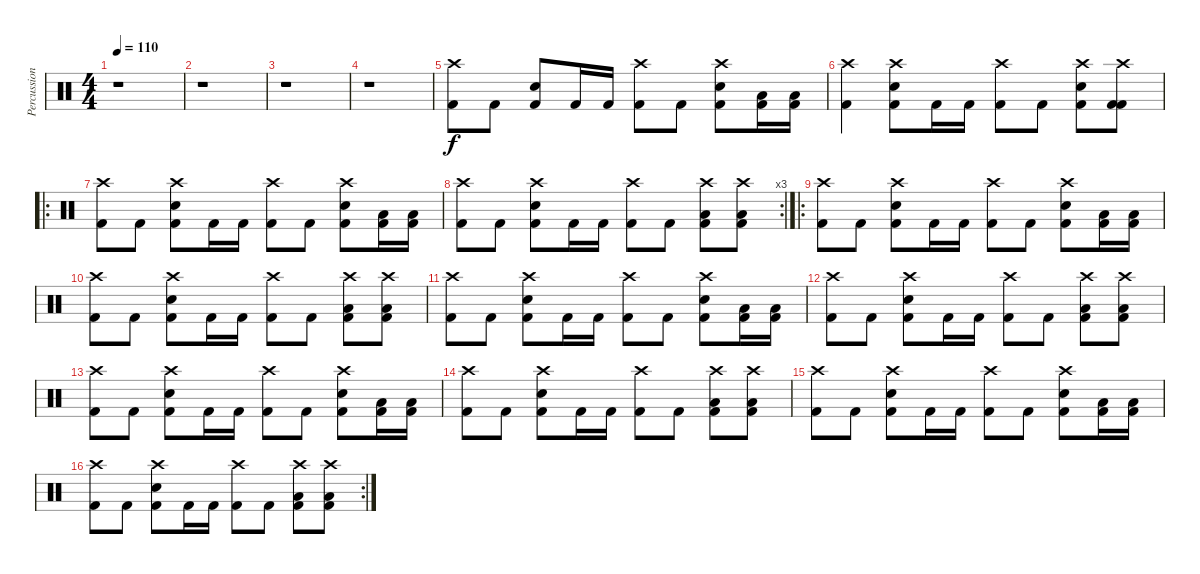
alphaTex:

\track ("Percussion" "Percussion") {instrument percussion}
\staff {score}
\articulation defaults
\ts (4 4)
\tempo 110
\clef neutral
\ks c
r.1{dy f} |
r.1 |
r.1 |
r.1 |
("Crash high (hit)" "Kick (hit) 2").8 "Kick (hit) 2".8 ("Snare (hit) 2" "Kick (hit) 2").8 "Kick (hit) 2".16 "Kick (hit) 2".16 ("Crash high (hit)" "Kick (hit) 2").8 "Kick (hit) 2".8 ("Crash high (hit)" "Snare (hit) 2" "Kick (hit) 2").8 ("Low Tom (hit)" "Kick (hit) 2").16 ("Low Floor Tom (hit)" "Kick (hit) 2").16 |
("Crash high (hit)" "Kick (hit) 2").4 ("Crash high (hit)" "Snare (hit) 2" "Kick (hit) 2").8 "Kick (hit) 2".16 "Kick (hit) 2".16 ("Crash high (hit)" "Kick (hit) 2").8 "Kick (hit) 2".8 ("Crash high (hit)" "Snare (hit) 2" "Kick (hit) 2").8 ("Crash high (hit)" "Kick (hit) 2" "Kick (hit) 2").8 |
\ro
("Crash high (hit)" "Kick (hit) 2").8 "Kick (hit) 2".8 ("Crash high (hit)" "Snare (hit) 2" "Kick (hit) 2").8 "Kick (hit) 2".16 "Kick (hit) 2".16 ("Crash high (hit)" "Kick (hit) 2").8 "Kick (hit) 2".8 ("Crash high (hit)" "Snare (hit) 2" "Kick (hit) 2").8 ("Low Tom (hit)" "Kick (hit) 2").16 ("Low Floor Tom (hit)" "Kick (hit) 2").16 |
\rc 3
("Crash high (hit)" "Kick (hit) 2").8 "Kick (hit) 2".8 ("Crash high (hit)" "Snare (hit) 2" "Kick (hit) 2").8 "Kick (hit) 2".16 "Kick (hit) 2".16 ("Crash high (hit)" "Kick (hit) 2").8 "Kick (hit) 2".8 ("Crash high (hit)" "Low Tom (hit)" "Kick (hit) 2").8 ("Crash high (hit)" "Low Floor Tom (hit)" "Kick (hit) 2").8 |
\ro
("Crash high (hit)" "Kick (hit) 2").8 "Kick (hit) 2".8 ("Crash high (hit)" "Snare (hit) 2" "Kick (hit) 2").8 "Kick (hit) 2".16 "Kick (hit) 2".16 ("Crash high (hit)" "Kick (hit) 2").8 "Kick (hit) 2".8 ("Crash high (hit)" "Snare (hit) 2" "Kick (hit) 2").8 ("Low Tom (hit)" "Kick (hit) 2").16 ("Low Floor Tom (hit)" "Kick (hit) 2").16 |
("Crash high (hit)" "Kick (hit) 2").8 "Kick (hit) 2".8 ("Crash high (hit)" "Snare (hit) 2" "Kick (hit) 2").8 "Kick (hit) 2".16 "Kick (hit) 2".16 ("Crash high (hit)" "Kick (hit) 2").8 "Kick (hit) 2".8 ("Crash high (hit)" "Low Tom (hit)" "Kick (hit) 2").8 ("Crash high (hit)" "Low Floor Tom (hit)" "Kick (hit) 2").8 |
("Crash high (hit)" "Kick (hit) 2").8 "Kick (hit) 2".8 ("Crash high (hit)" "Snare (hit) 2" "Kick (hit) 2").8 "Kick (hit) 2".16 "Kick (hit) 2".16 ("Crash high (hit)" "Kick (hit) 2").8 "Kick (hit) 2".8 ("Crash high (hit)" "Snare (hit) 2" "Kick (hit) 2").8 ("Low Tom (hit)" "Kick (hit) 2").16 ("Low Floor Tom (hit)" "Kick (hit) 2").16 |
("Crash high (hit)" "Kick (hit) 2").8 "Kick (hit) 2".8 ("Crash high (hit)" "Snare (hit) 2" "Kick (hit) 2").8 "Kick (hit) 2".16 "Kick (hit) 2".16 ("Crash high (hit)" "Kick (hit) 2").8 "Kick (hit) 2".8 ("Crash high (hit)" "Low Tom (hit)" "Kick (hit) 2").8 ("Crash high (hit)" "Low Floor Tom (hit)" "Kick (hit) 2").8 |
("Crash high (hit)" "Kick (hit) 2").8 "Kick (hit) 2".8 ("Crash high (hit)" "Snare (hit) 2" "Kick (hit) 2").8 "Kick (hit) 2".16 "Kick (hit) 2".16 ("Crash high (hit)" "Kick (hit) 2").8 "Kick (hit) 2".8 ("Crash high (hit)" "Snare (hit) 2" "Kick (hit) 2").8 ("Low Tom (hit)" "Kick (hit) 2").16 ("Low Floor Tom (hit)" "Kick (hit) 2").16 |
("Crash high (hit)" "Kick (hit) 2").8 "Kick (hit) 2".8 ("Crash high (hit)" "Snare (hit) 2" "Kick (hit) 2").8 "Kick (hit) 2".16 "Kick (hit) 2".16 ("Crash high (hit)" "Kick (hit) 2").8 "Kick (hit) 2".8 ("Crash high (hit)" "Low Tom (hit)" "Kick (hit) 2").8 ("Crash high (hit)" "Low Floor Tom (hit)" "Kick (hit) 2").8 |
("Crash high (hit)" "Kick (hit) 2").8 "Kick (hit) 2".8 ("Crash high (hit)" "Snare (hit) 2" "Kick (hit) 2").8 "Kick (hit) 2".16 "Kick (hit) 2".16 ("Crash high (hit)" "Kick (hit) 2").8 "Kick (hit) 2".8 ("Crash high (hit)" "Snare (hit) 2" "Kick (hit) 2").8 ("Low Tom (hit)" "Kick (hit) 2").16 ("Low Floor Tom (hit)" "Kick (hit) 2").16 |
\rc 2
("Crash high (hit)" "Kick (hit) 2").8 "Kick (hit) 2".8 ("Crash high (hit)" "Snare (hit) 2" "Kick (hit) 2").8 "Kick (hit) 2".16 "Kick (hit) 2".16 ("Crash high (hit)" "Kick (hit) 2").8 "Kick (hit) 2".8 ("Crash high (hit)" "Low Tom (hit)" "Kick (hit) 2").8 ("Crash high (hit)" "Low Floor Tom (hit)" "Kick (hit) 2").8
